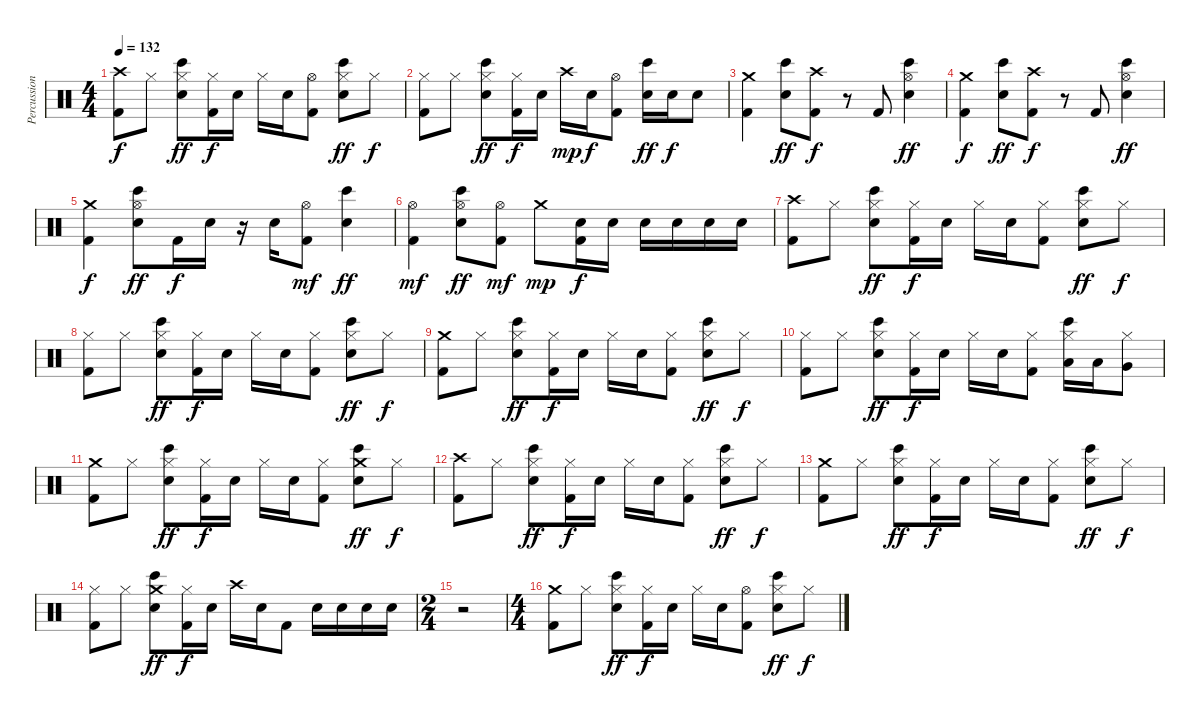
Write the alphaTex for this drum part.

\track ("Percussion" "Percussion") {instrument percussion}
\staff {score}
\articulation defaults
\ts (4 4)
\tempo 132
\clef neutral
\ks c
("Crash high (hit)" "Kick (hit) 2").8{dy f} "Hi-Hat (closed)".8 ("Hi-Hat (closed)" "Bongo High (hit)" "Snare (hit) 2").8{dy ff} ("Hi-Hat (closed)" "Kick (hit) 2").16{dy f} "Snare (hit) 2".16 "Hi-Hat (closed)".16 "Snare (hit) 2".16 ("Hi-Hat (open)" "Kick (hit) 2").8 ("Hi-Hat (closed)" "Bongo High (hit)" "Snare (hit) 2").8{dy ff} "Hi-Hat (closed)".8{dy f} |
("Hi-Hat (closed)" "Kick (hit) 2").8 "Hi-Hat (closed)".8 ("Hi-Hat (closed)" "Bongo High (hit)" "Snare (hit) 2").8{dy ff} ("Hi-Hat (closed)" "Kick (hit) 2").16{dy f} "Snare (hit) 2".16 "Crash high (hit)".16{dy mp} "Snare (hit) 2".16{dy f} ("Hi-Hat (open)" "Kick (hit) 2").8 ("Bongo High (hit)" "Snare (hit) 2").16{dy ff} "Snare (hit) 2".16{dy f} "Snare (hit) 2".8 |
("Crash medium (hit)" "Kick (hit) 2").4 ("Bongo High (hit)" "Snare (hit) 2").8{dy ff} ("Crash high (hit)" "Kick (hit) 2").8{dy f} r.8 "Kick (hit) 2".8 ("Hi-Hat (open)" "Bongo High (hit)" "Snare (hit) 2").4{dy ff} |
("Crash medium (hit)" "Kick (hit) 2").4{dy f} ("Bongo High (hit)" "Snare (hit) 2").8{dy ff} ("Crash high (hit)" "Kick (hit) 2").8{dy f} r.8 "Kick (hit) 2".8 ("Hi-Hat (open)" "Bongo High (hit)" "Snare (hit) 2").4{dy ff} |
("Crash medium (hit)" "Kick (hit) 2").4{dy f} ("Hi-Hat (open)" "Bongo High (hit)" "Snare (hit) 2").8{dy ff} "Kick (hit) 2".16{dy f} "Snare (hit) 2".16 r.16 "Snare (hit) 2".16 ("Hi-Hat (open)" "Kick (hit) 2").8{dy mf} ("Bongo High (hit)" "Snare (hit) 2").4{dy ff} |
("Hi-Hat (open)" "Kick (hit) 2").4{dy mf} ("Hi-Hat (open)" "Bongo High (hit)" "Snare (hit) 2").8{dy ff} ("Hi-Hat (open)" "Kick (hit) 2").8{dy mf} "Crash medium (hit)".8{dy mp} ("Snare (hit) 2" "Kick (hit) 2").16{dy f} "Snare (hit) 2".16 "Snare (hit) 2".16 "Snare (hit) 2".16 "Snare (hit) 2".16 "Snare (hit) 2".16 |
("Crash high (hit)" "Kick (hit) 2").8 "Hi-Hat (closed)".8 ("Hi-Hat (closed)" "Bongo High (hit)" "Snare (hit) 2").8{dy ff} ("Hi-Hat (closed)" "Kick (hit) 2").16{dy f} "Snare (hit) 2".16 "Hi-Hat (closed)".16 "Snare (hit) 2".16 ("Hi-Hat (closed)" "Kick (hit) 2").8 ("Hi-Hat (closed)" "Bongo High (hit)" "Snare (hit) 2").8{dy ff} "Hi-Hat (closed)".8{dy f} |
("Hi-Hat (closed)" "Kick (hit) 2").8 "Hi-Hat (closed)".8 ("Hi-Hat (closed)" "Bongo High (hit)" "Snare (hit) 2").8{dy ff} ("Hi-Hat (closed)" "Kick (hit) 2").16{dy f} "Snare (hit) 2".16 "Hi-Hat (closed)".16 "Snare (hit) 2".16 ("Hi-Hat (closed)" "Kick (hit) 2").8 ("Hi-Hat (closed)" "Bongo High (hit)" "Snare (hit) 2").8{dy ff} "Hi-Hat (closed)".8{dy f} |
("Crash medium (hit)" "Kick (hit) 2").8 "Hi-Hat (closed)".8 ("Hi-Hat (closed)" "Bongo High (hit)" "Snare (hit) 2").8{dy ff} ("Hi-Hat (closed)" "Kick (hit) 2").16{dy f} "Snare (hit) 2".16 "Hi-Hat (closed)".16 "Snare (hit) 2".16 ("Hi-Hat (closed)" "Kick (hit) 2").8 ("Hi-Hat (closed)" "Bongo High (hit)" "Snare (hit) 2").8{dy ff} "Hi-Hat (closed)".8{dy f} |
("Hi-Hat (closed)" "Kick (hit) 2").8 "Hi-Hat (closed)".8 ("Hi-Hat (closed)" "Bongo High (hit)" "Snare (hit) 2").8{dy ff} ("Hi-Hat (closed)" "Kick (hit) 2").16{dy f} "Snare (hit) 2".16 "Hi-Hat (closed)".16 "Snare (hit) 2".16 ("Hi-Hat (closed)" "Kick (hit) 2").8 ("Hi-Hat (closed)" "Bongo High (hit)" "Low Tom (hit)").16 "Low Tom (hit)".16 ("Hi-Hat (closed)" "Very Low Tom (hit)").8 |
("Crash medium (hit)" "Kick (hit) 2").8 "Hi-Hat (closed)".8 ("Hi-Hat (closed)" "Bongo High (hit)" "Snare (hit) 2").8{dy ff} ("Hi-Hat (closed)" "Kick (hit) 2").16{dy f} "Snare (hit) 2".16 "Hi-Hat (closed)".16 "Snare (hit) 2".16 ("Hi-Hat (closed)" "Kick (hit) 2").8 ("Crash medium (hit)" "Bongo High (hit)" "Snare (hit) 2").8{dy ff} "Hi-Hat (closed)".8{dy f} |
("Crash high (hit)" "Kick (hit) 2").8 "Hi-Hat (closed)".8 ("Hi-Hat (closed)" "Bongo High (hit)" "Snare (hit) 2").8{dy ff} ("Hi-Hat (closed)" "Kick (hit) 2").16{dy f} "Snare (hit) 2".16 "Hi-Hat (closed)".16 "Snare (hit) 2".16 ("Hi-Hat (closed)" "Kick (hit) 2").8 ("Hi-Hat (closed)" "Bongo High (hit)" "Snare (hit) 2").8{dy ff} "Hi-Hat (closed)".8{dy f} |
("Crash medium (hit)" "Kick (hit) 2").8 "Hi-Hat (closed)".8 ("Hi-Hat (closed)" "Bongo High (hit)" "Snare (hit) 2").8{dy ff} ("Hi-Hat (closed)" "Kick (hit) 2").16{dy f} "Snare (hit) 2".16 "Hi-Hat (closed)".16 "Snare (hit) 2".16 ("Hi-Hat (closed)" "Kick (hit) 2").8 ("Hi-Hat (closed)" "Bongo High (hit)" "Snare (hit) 2").8{dy ff} "Hi-Hat (closed)".8{dy f} |
("Hi-Hat (closed)" "Kick (hit) 2").8 "Hi-Hat (closed)".8 ("Crash medium (hit)" "Bongo High (hit)" "Snare (hit) 2").8{dy ff} ("Hi-Hat (closed)" "Kick (hit) 2").16{dy f} "Snare (hit) 2".16 "Crash high (hit)".16 "Snare (hit) 2".16 "Kick (hit) 2".8 "Snare (hit) 2".16 "Snare (hit) 2".16 "Snare (hit) 2".16 "Snare (hit) 2".16 |
\ts (2 4)
r.2 |
\ts (4 4)
("Crash medium (hit)" "Kick (hit) 2").8 "Hi-Hat (closed)".8 ("Hi-Hat (closed)" "Bongo High (hit)" "Snare (hit) 2").8{dy ff} ("Hi-Hat (closed)" "Kick (hit) 2").16{dy f} "Snare (hit) 2".16 "Hi-Hat (closed)".16 "Snare (hit) 2".16 ("Hi-Hat (open)" "Kick (hit) 2").8 ("Hi-Hat (closed)" "Bongo High (hit)" "Snare (hit) 2").8{dy ff} "Hi-Hat (closed)".8{dy f}
